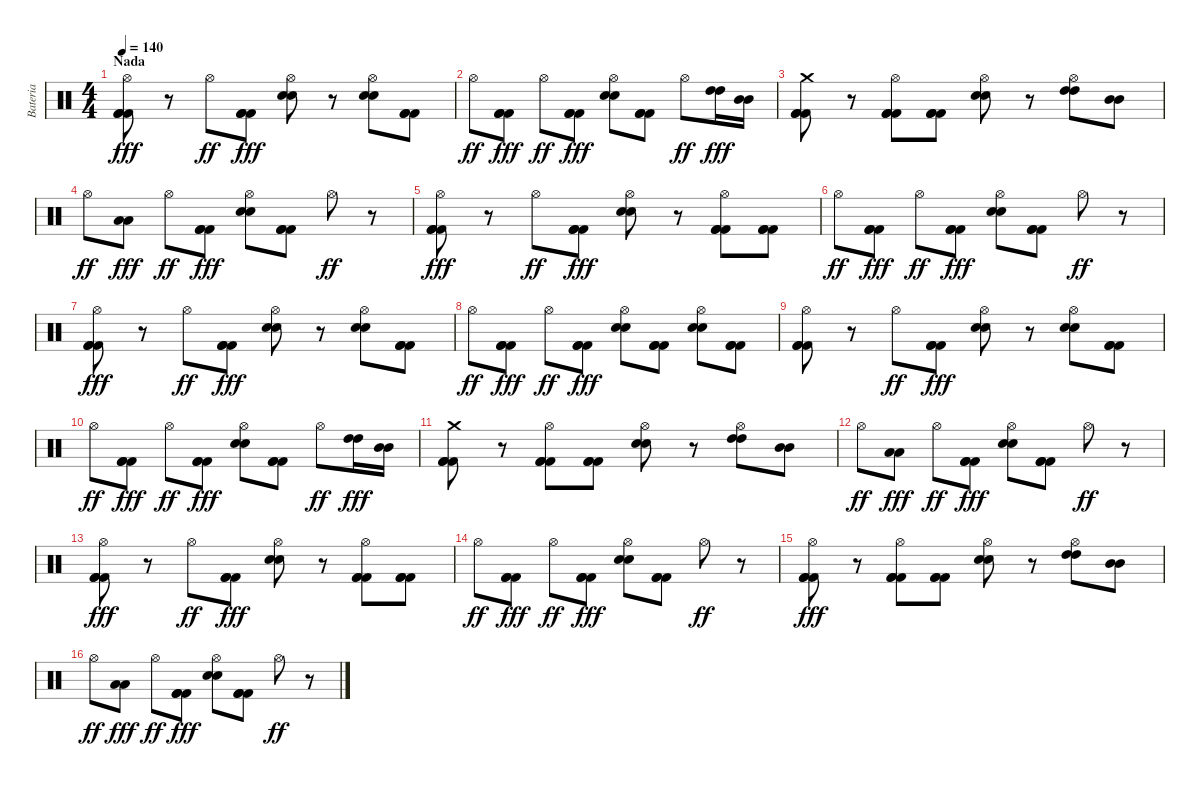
\track ("Bateria" "Bateria") {instrument percussion}
\staff {score}
\articulation defaults
\ts (4 4)
\section ("" "Nada")
\tempo 140
\clef neutral
\ks c
("Hi-Hat (open)" "Kick (hit) 2" "Kick (hit) 2" "Kick (hit) 2").8{dy fff} r.8 "Hi-Hat (open)".8{dy ff} ("Kick (hit) 2" "Kick (hit) 2" "Kick (hit) 2").8{dy fff} ("Hi-Hat (open)" "Snare (hit) 2" "Snare (hit) 2").8 r.8 ("Hi-Hat (open)" "Snare (hit) 2" "Snare (hit) 2").8 ("Kick (hit) 2" "Kick (hit) 2" "Kick (hit) 2").8 |
"Hi-Hat (open)".8{dy ff} ("Kick (hit) 2" "Kick (hit) 2" "Kick (hit) 2").8{dy fff} "Hi-Hat (open)".8{dy ff} ("Kick (hit) 2" "Kick (hit) 2" "Kick (hit) 2").8{dy fff} ("Hi-Hat (open)" "Snare (hit) 2" "Snare (hit) 2").8 ("Kick (hit) 2" "Kick (hit) 2" "Kick (hit) 2").8 "Hi-Hat (open)".8{dy ff} ("High Tom (hit)" "High Tom (hit)").16{dy fff} ("Mid Tom (hit)" "Mid Tom (hit)").16 |
("Crash medium (hit)" "Kick (hit) 2" "Kick (hit) 2" "Kick (hit) 2").8 r.8 ("Hi-Hat (open)" "Kick (hit) 2" "Kick (hit) 2" "Kick (hit) 2").8 ("Kick (hit) 2" "Kick (hit) 2" "Kick (hit) 2").8 ("Hi-Hat (open)" "Snare (hit) 2" "Snare (hit) 2").8 r.8 ("Hi-Hat (open)" "High Tom (hit)" "High Tom (hit)").8 ("Mid Tom (hit)" "Mid Tom (hit)").8 |
"Hi-Hat (open)".8{dy ff} ("Low Tom (hit)" "Low Tom (hit)").8{dy fff} "Hi-Hat (open)".8{dy ff} ("Kick (hit) 2" "Kick (hit) 2" "Kick (hit) 2").8{dy fff} ("Hi-Hat (open)" "Snare (hit) 2" "Snare (hit) 2").8 ("Kick (hit) 2" "Kick (hit) 2" "Kick (hit) 2").8 "Hi-Hat (open)".8{dy ff} r.8 |
("Hi-Hat (open)" "Kick (hit) 2" "Kick (hit) 2" "Kick (hit) 2").8{dy fff} r.8 "Hi-Hat (open)".8{dy ff} ("Kick (hit) 2" "Kick (hit) 2" "Kick (hit) 2").8{dy fff} ("Hi-Hat (open)" "Snare (hit) 2" "Snare (hit) 2").8 r.8 ("Hi-Hat (open)" "Kick (hit) 2" "Kick (hit) 2" "Kick (hit) 2").8 ("Kick (hit) 2" "Kick (hit) 2" "Kick (hit) 2").8 |
"Hi-Hat (open)".8{dy ff} ("Kick (hit) 2" "Kick (hit) 2" "Kick (hit) 2").8{dy fff} "Hi-Hat (open)".8{dy ff} ("Kick (hit) 2" "Kick (hit) 2" "Kick (hit) 2").8{dy fff} ("Hi-Hat (open)" "Snare (hit) 2" "Snare (hit) 2").8 ("Kick (hit) 2" "Kick (hit) 2" "Kick (hit) 2").8 "Hi-Hat (open)".8{dy ff} r.8 |
("Hi-Hat (open)" "Kick (hit) 2" "Kick (hit) 2" "Kick (hit) 2").8{dy fff} r.8 "Hi-Hat (open)".8{dy ff} ("Kick (hit) 2" "Kick (hit) 2" "Kick (hit) 2").8{dy fff} ("Hi-Hat (open)" "Snare (hit) 2" "Snare (hit) 2").8 r.8 ("Hi-Hat (open)" "Snare (hit) 2" "Snare (hit) 2").8 ("Kick (hit) 2" "Kick (hit) 2" "Kick (hit) 2").8 |
"Hi-Hat (open)".8{dy ff} ("Kick (hit) 2" "Kick (hit) 2" "Kick (hit) 2").8{dy fff} "Hi-Hat (open)".8{dy ff} ("Kick (hit) 2" "Kick (hit) 2" "Kick (hit) 2").8{dy fff} ("Hi-Hat (open)" "Snare (hit) 2" "Snare (hit) 2").8 ("Kick (hit) 2" "Kick (hit) 2" "Kick (hit) 2").8 ("Hi-Hat (open)" "Snare (hit) 2" "Snare (hit) 2").8 ("Kick (hit) 2" "Kick (hit) 2" "Kick (hit) 2").8 |
("Hi-Hat (open)" "Kick (hit) 2" "Kick (hit) 2" "Kick (hit) 2").8 r.8 "Hi-Hat (open)".8{dy ff} ("Kick (hit) 2" "Kick (hit) 2" "Kick (hit) 2").8{dy fff} ("Hi-Hat (open)" "Snare (hit) 2" "Snare (hit) 2").8 r.8 ("Hi-Hat (open)" "Snare (hit) 2" "Snare (hit) 2").8 ("Kick (hit) 2" "Kick (hit) 2" "Kick (hit) 2").8 |
"Hi-Hat (open)".8{dy ff} ("Kick (hit) 2" "Kick (hit) 2" "Kick (hit) 2").8{dy fff} "Hi-Hat (open)".8{dy ff} ("Kick (hit) 2" "Kick (hit) 2" "Kick (hit) 2").8{dy fff} ("Hi-Hat (open)" "Snare (hit) 2" "Snare (hit) 2").8 ("Kick (hit) 2" "Kick (hit) 2" "Kick (hit) 2").8 "Hi-Hat (open)".8{dy ff} ("High Tom (hit)" "High Tom (hit)").16{dy fff} ("Mid Tom (hit)" "Mid Tom (hit)").16 |
("Crash medium (hit)" "Kick (hit) 2" "Kick (hit) 2" "Kick (hit) 2").8 r.8 ("Hi-Hat (open)" "Kick (hit) 2" "Kick (hit) 2" "Kick (hit) 2").8 ("Kick (hit) 2" "Kick (hit) 2" "Kick (hit) 2").8 ("Hi-Hat (open)" "Snare (hit) 2" "Snare (hit) 2").8 r.8 ("Hi-Hat (open)" "High Tom (hit)" "High Tom (hit)").8 ("Mid Tom (hit)" "Mid Tom (hit)").8 |
"Hi-Hat (open)".8{dy ff} ("Low Tom (hit)" "Low Tom (hit)").8{dy fff} "Hi-Hat (open)".8{dy ff} ("Kick (hit) 2" "Kick (hit) 2" "Kick (hit) 2").8{dy fff} ("Hi-Hat (open)" "Snare (hit) 2" "Snare (hit) 2").8 ("Kick (hit) 2" "Kick (hit) 2" "Kick (hit) 2").8 "Hi-Hat (open)".8{dy ff} r.8 |
("Hi-Hat (open)" "Kick (hit) 2" "Kick (hit) 2" "Kick (hit) 2").8{dy fff} r.8 "Hi-Hat (open)".8{dy ff} ("Kick (hit) 2" "Kick (hit) 2" "Kick (hit) 2").8{dy fff} ("Hi-Hat (open)" "Snare (hit) 2" "Snare (hit) 2").8 r.8 ("Hi-Hat (open)" "Kick (hit) 2" "Kick (hit) 2" "Kick (hit) 2").8 ("Kick (hit) 2" "Kick (hit) 2" "Kick (hit) 2").8 |
"Hi-Hat (open)".8{dy ff} ("Kick (hit) 2" "Kick (hit) 2" "Kick (hit) 2").8{dy fff} "Hi-Hat (open)".8{dy ff} ("Kick (hit) 2" "Kick (hit) 2" "Kick (hit) 2").8{dy fff} ("Hi-Hat (open)" "Snare (hit) 2" "Snare (hit) 2").8 ("Kick (hit) 2" "Kick (hit) 2" "Kick (hit) 2").8 "Hi-Hat (open)".8{dy ff} r.8 |
("Hi-Hat (open)" "Kick (hit) 2" "Kick (hit) 2" "Kick (hit) 2").8{dy fff} r.8 ("Hi-Hat (open)" "Kick (hit) 2" "Kick (hit) 2" "Kick (hit) 2").8 ("Kick (hit) 2" "Kick (hit) 2" "Kick (hit) 2").8 ("Hi-Hat (open)" "Snare (hit) 2" "Snare (hit) 2").8 r.8 ("Hi-Hat (open)" "High Tom (hit)" "High Tom (hit)").8 ("Mid Tom (hit)" "Mid Tom (hit)").8 |
"Hi-Hat (open)".8{dy ff} ("Low Tom (hit)" "Low Tom (hit)").8{dy fff} "Hi-Hat (open)".8{dy ff} ("Kick (hit) 2" "Kick (hit) 2" "Kick (hit) 2").8{dy fff} ("Hi-Hat (open)" "Snare (hit) 2" "Snare (hit) 2").8 ("Kick (hit) 2" "Kick (hit) 2" "Kick (hit) 2").8 "Hi-Hat (open)".8{dy ff} r.8
